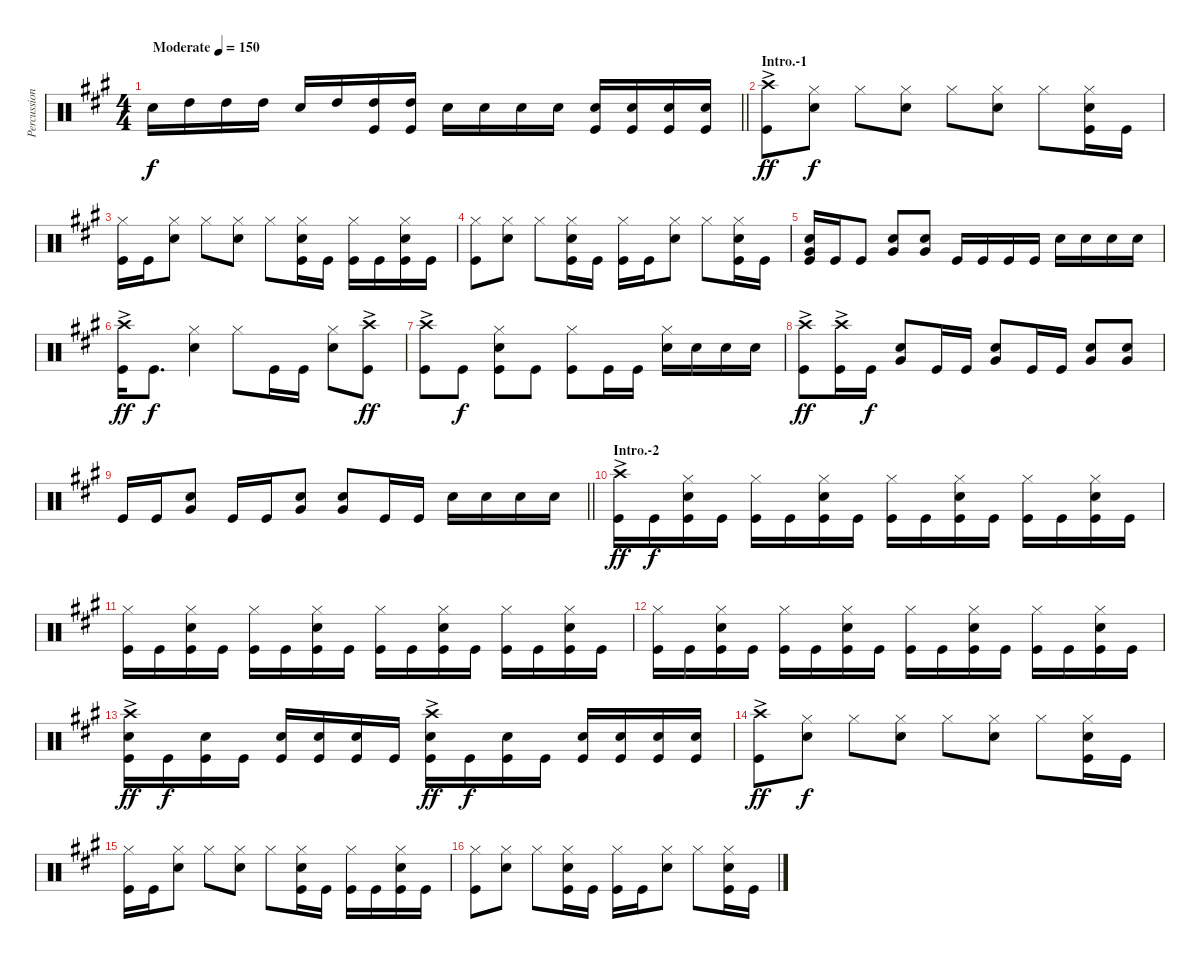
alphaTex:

\track ("Percussion" "Percussion") {instrument percussion}
\staff {score}
\articulation defaults
\ts (4 4)
\tempo (150 "Moderate")
\clef neutral
\barLineRight lightlight
\ks a "Snare (hit) 2".16{dy f volume 16} "High Tom (hit)".16 "High Tom (hit)".16 "High Tom (hit)".16 "Snare (hit) 2".16 "High Tom (hit)".16
("High Tom (hit)" "Kick (hit)").16 ("High Tom (hit)" "Kick (hit)").16 "Snare (hit) 2".16 "Snare (hit) 2".16 "Snare (hit) 2".16 "Snare (hit) 2".16 ("Snare (hit) 2" "Kick (hit)").16 ("Snare (hit) 2" "Kick (hit)").16 ("Snare (hit) 2" "Kick (hit)").16 ("Snare (hit) 2" "Kick (hit)").16 |
\section ("" "Intro.-1")
("Crash high (hit)"{ac} "Kick (hit)").8{dy ff volume 13} ("Hi-Hat (closed)" "Snare (hit) 2").8{dy f} "Hi-Hat (closed)".8 ("Hi-Hat (closed)" "Snare (hit) 2").8 "Hi-Hat (closed)".8 ("Hi-Hat (closed)" "Snare (hit) 2").8 "Hi-Hat (closed)".8 ("Hi-Hat (closed)" "Snare (hit) 2" "Kick (hit)").16 "Kick (hit)".16 |
("Hi-Hat (closed)" "Kick (hit)").16 "Kick (hit)".16 ("Hi-Hat (closed)" "Snare (hit) 2").8 "Hi-Hat (closed)".8 ("Hi-Hat (closed)" "Snare (hit) 2").8 "Hi-Hat (closed)".8 ("Hi-Hat (closed)" "Snare (hit) 2" "Kick (hit)").16 "Kick (hit)".16 ("Hi-Hat (closed)" "Kick (hit)").16 "Kick (hit)".16 ("Kick (hit)" "Hi-Hat (closed)" "Snare (hit) 2").16 "Kick (hit)".16 |
("Hi-Hat (closed)" "Kick (hit)").8 ("Hi-Hat (closed)" "Snare (hit) 2").8 "Hi-Hat (closed)".8 ("Hi-Hat (closed)" "Snare (hit) 2" "Kick (hit)").16 "Kick (hit)".16 ("Kick (hit)" "Hi-Hat (closed)").16 "Kick (hit)".16 ("Hi-Hat (closed)" "Snare (hit) 2").8 "Hi-Hat (closed)".8 ("Hi-Hat (closed)" "Snare (hit) 2" "Kick (hit)").16 "Kick (hit)".16 |
("Snare (hit) 2" "Very Low Tom (hit)" "Kick (hit)").16 "Kick (hit)".16 "Kick (hit)".8 ("Snare (hit) 2" "Very Low Tom (hit)").8 ("Very Low Tom (hit)" "Snare (hit) 2").8 "Kick (hit)".16 "Kick (hit)".16 "Kick (hit)".16 "Kick (hit)".16 "Snare (hit) 2".16 "Snare (hit) 2".16 "Snare (hit) 2".16 "Snare (hit) 2".16 |
("Crash high (hit)"{ac} "Kick (hit)").16{dy ff} "Kick (hit)".8{d dy f} ("Hi-Hat (closed)" "Snare (hit) 2").4 "Hi-Hat (closed)".8 "Kick (hit)".16 "Kick (hit)".16 ("Snare (hit) 2" "Hi-Hat (closed)").8 ("Crash high (hit)"{ac} "Kick (hit)").8{dy ff} |
("Crash high (hit)"{ac} "Kick (hit)").8 "Kick (hit)".8{dy f} ("Hi-Hat (closed)" "Snare (hit) 2" "Kick (hit)").8 "Kick (hit)".8 ("Hi-Hat (closed)" "Kick (hit)").8 "Kick (hit)".16 "Kick (hit)".16 ("Hi-Hat (closed)" "Snare (hit) 2").16 "Snare (hit) 2".16 "Snare (hit) 2".16 "Snare (hit) 2".16 |
("Crash high (hit)"{ac} "Kick (hit)").8{dy ff} ("Crash high (hit)"{ac} "Kick (hit)").16 "Kick (hit)".16{dy f} ("Snare (hit) 2" "Very Low Tom (hit)").8 "Kick (hit)".16 "Kick (hit)".16 ("Snare (hit) 2" "Very Low Tom (hit)").8 "Kick (hit)".16 "Kick (hit)".16 ("Snare (hit) 2" "Very Low Tom (hit)").8 ("Snare (hit) 2" "Very Low Tom (hit)").8 |
\barLineRight lightlight "Kick (hit)".16 "Kick (hit)".16
("Snare (hit) 2" "Very Low Tom (hit)").8 "Kick (hit)".16 "Kick (hit)".16 ("Snare (hit) 2" "Very Low Tom (hit)").8 ("Snare (hit) 2" "Very Low Tom (hit)").8 "Kick (hit)".16 "Kick (hit)".16 "Snare (hit) 2".16 "Snare (hit) 2".16 "Snare (hit) 2".16 "Snare (hit) 2".16 |
\section ("" "Intro.-2")
("Crash high (hit)"{ac} "Kick (hit)").16{dy ff} "Kick (hit)".16{dy f} ("Hi-Hat (closed)" "Snare (hit) 2" "Kick (hit)").16 "Kick (hit)".16 ("Hi-Hat (closed)" "Kick (hit)").16 "Kick (hit)".16 ("Kick (hit)" "Hi-Hat (closed)" "Snare (hit) 2").16 "Kick (hit)".16 ("Kick (hit)" "Hi-Hat (closed)").16 "Kick (hit)".16 ("Hi-Hat (closed)" "Kick (hit)" "Snare (hit) 2").16 "Kick (hit)".16 ("Hi-Hat (closed)" "Kick (hit)").16 "Kick (hit)".16 ("Hi-Hat (closed)" "Kick (hit)" "Snare (hit) 2").16 "Kick (hit)".16 |
("Hi-Hat (closed)" "Kick (hit)").16 "Kick (hit)".16 ("Hi-Hat (closed)" "Snare (hit) 2" "Kick (hit)").16 "Kick (hit)".16 ("Hi-Hat (closed)" "Kick (hit)").16 "Kick (hit)".16 ("Kick (hit)" "Hi-Hat (closed)" "Snare (hit) 2").16 "Kick (hit)".16 ("Kick (hit)" "Hi-Hat (closed)").16 "Kick (hit)".16 ("Hi-Hat (closed)" "Kick (hit)" "Snare (hit) 2").16 "Kick (hit)".16 ("Hi-Hat (closed)" "Kick (hit)").16 "Kick (hit)".16 ("Hi-Hat (closed)" "Kick (hit)" "Snare (hit) 2").16 "Kick (hit)".16 |
("Hi-Hat (closed)" "Kick (hit)").16 "Kick (hit)".16 ("Hi-Hat (closed)" "Snare (hit) 2" "Kick (hit)").16 "Kick (hit)".16 ("Hi-Hat (closed)" "Kick (hit)").16 "Kick (hit)".16 ("Kick (hit)" "Hi-Hat (closed)" "Snare (hit) 2").16 "Kick (hit)".16 ("Kick (hit)" "Hi-Hat (closed)").16 "Kick (hit)".16 ("Hi-Hat (closed)" "Kick (hit)" "Snare (hit) 2").16 "Kick (hit)".16 ("Hi-Hat (closed)" "Kick (hit)").16 "Kick (hit)".16 ("Hi-Hat (closed)" "Kick (hit)" "Snare (hit) 2").16 "Kick (hit)".16 |
("Crash high (hit)"{ac} "Snare (hit) 2" "Kick (hit)").16{dy ff} "Kick (hit)".16{dy f} ("Snare (hit) 2" "Kick (hit)").16 "Kick (hit)".16 ("Snare (hit) 2" "Kick (hit)").16 ("Snare (hit) 2" "Kick (hit)").16 ("Kick (hit)" "Snare (hit) 2").16 "Kick (hit)".16 ("Kick (hit)" "Crash high (hit)"{ac} "Snare (hit) 2").16{dy ff} "Kick (hit)".16{dy f} ("Kick (hit)" "Snare (hit) 2").16 "Kick (hit)".16 ("Kick (hit)" "Snare (hit) 2").16 ("Kick (hit)" "Snare (hit) 2").16 ("Kick (hit)" "Snare (hit) 2").16 ("Kick (hit)" "Snare (hit) 2").16 |
("Crash high (hit)"{ac} "Kick (hit)").8{dy ff} ("Hi-Hat (closed)" "Snare (hit) 2").8{dy f} "Hi-Hat (closed)".8 ("Hi-Hat (closed)" "Snare (hit) 2").8 "Hi-Hat (closed)".8 ("Hi-Hat (closed)" "Snare (hit) 2").8 "Hi-Hat (closed)".8 ("Hi-Hat (closed)" "Snare (hit) 2" "Kick (hit)").16 "Kick (hit)".16 |
("Kick (hit)" "Hi-Hat (closed)").16 "Kick (hit)".16 ("Hi-Hat (closed)" "Snare (hit) 2").8 "Hi-Hat (closed)".8 ("Hi-Hat (closed)" "Snare (hit) 2").8 "Hi-Hat (closed)".8 ("Hi-Hat (closed)" "Snare (hit) 2" "Kick (hit)").16 "Kick (hit)".16 ("Kick (hit)" "Hi-Hat (closed)").16 "Kick (hit)".16 ("Kick (hit)" "Hi-Hat (closed)" "Snare (hit) 2").16 "Kick (hit)".16 |
("Kick (hit)" "Hi-Hat (closed)").8 ("Hi-Hat (closed)" "Snare (hit) 2").8 "Hi-Hat (closed)".8 ("Hi-Hat (closed)" "Snare (hit) 2" "Kick (hit)").16 "Kick (hit)".16 ("Kick (hit)" "Hi-Hat (closed)").16 "Kick (hit)".16 ("Hi-Hat (closed)" "Snare (hit) 2").8 "Hi-Hat (closed)".8 ("Hi-Hat (closed)" "Snare (hit) 2" "Kick (hit)").16 "Kick (hit)".16
